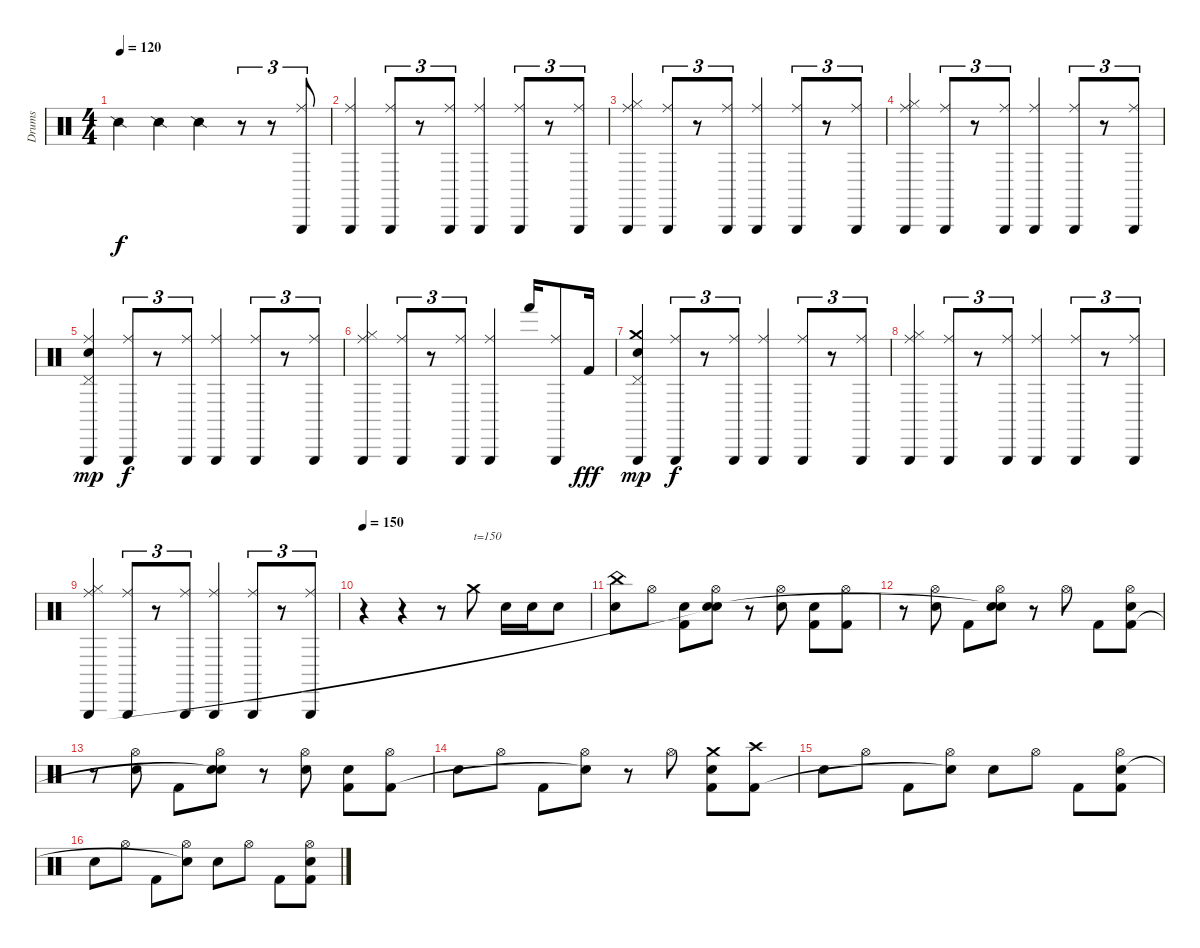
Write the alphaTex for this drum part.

\track ("Drums" "Drums") {instrument percussion}
\staff {score}
\articulation defaults
\ts (4 4)
\tempo 120
\clef neutral
\ks c "Snare (side stick) 2".4{dy f} "Snare (side stick) 2".4 "Snare (side stick) 2".4
r.8{tu (3 2)} r.8{tu (3 2)} ("Triangle (hit)" "Ride (middle)").8{tu (3 2)} |
("Triangle (hit)" "Ride (middle)").4 ("Triangle (hit)" "Ride (middle)").8{tu (3 2)} r.8{tu (3 2)} ("Triangle (hit)" "Ride (middle)").8{tu (3 2)} ("Triangle (hit)" "Ride (middle)").4 ("Triangle (hit)" "Ride (middle)").8{tu (3 2)} r.8{tu (3 2)} ("Triangle (hit)" "Ride (middle)").8{tu (3 2)} |
("Ride (middle)" "Hi-Hat (closed)" "Triangle (hit)").4 ("Ride (middle)" "Triangle (hit)").8{tu (3 2)} r.8{tu (3 2)} ("Ride (middle)" "Triangle (hit)").8{tu (3 2)} ("Ride (middle)" "Triangle (hit)").4 ("Ride (middle)" "Triangle (hit)").8{tu (3 2)} r.8{tu (3 2)} ("Ride (middle)" "Triangle (hit)").8{tu (3 2)} |
("Ride (middle)" "Hi-Hat (closed)" "Triangle (hit)").4 ("Ride (middle)" "Triangle (hit)").8{tu (3 2)} r.8{tu (3 2)} ("Ride (middle)" "Triangle (hit)").8{tu (3 2)} ("Ride (middle)" "Triangle (hit)").4 ("Ride (middle)" "Triangle (hit)").8{tu (3 2)} r.8{tu (3 2)} ("Ride (middle)" "Triangle (hit)").8{tu (3 2)} |
("Ride (middle)" "Snare (hit) 2" "Pedal Hi-Hat (hit)" "Triangle (hit)").4{dy mp} ("Ride (middle)" "Triangle (hit)").8{tu (3 2) dy f} r.8{tu (3 2)} ("Ride (middle)" "Triangle (hit)").8{tu (3 2)} ("Ride (middle)" "Triangle (hit)").4 ("Ride (middle)" "Triangle (hit)").8{tu (3 2)} r.8{tu (3 2)} ("Ride (middle)" "Triangle (hit)").8{tu (3 2)} |
("Ride (middle)" "Hi-Hat (closed)" "Triangle (hit)").4 ("Ride (middle)" "Triangle (hit)").8{tu (3 2)} r.8{tu (3 2)} ("Ride (middle)" "Triangle (hit)").8{tu (3 2)} ("Ride (middle)" "Triangle (hit)").4 "Hand (hit)".16 ("Ride (middle)" "Triangle (hit)").8 "Kick (hit) 2".16{dy fff} |
("Crash medium (hit)" "Snare (hit) 2" "Pedal Hi-Hat (hit)" "Triangle (hit)").4{dy mp} ("Ride (middle)" "Triangle (hit)").8{tu (3 2) dy f} r.8{tu (3 2)} ("Ride (middle)" "Triangle (hit)").8{tu (3 2)} ("Ride (middle)" "Triangle (hit)").4 ("Ride (middle)" "Triangle (hit)").8{tu (3 2)} r.8{tu (3 2)} ("Ride (middle)" "Triangle (hit)").8{tu (3 2)} |
("Ride (middle)" "Hi-Hat (closed)" "Triangle (hit)").4 ("Ride (middle)" "Triangle (hit)").8{tu (3 2)} r.8{tu (3 2)} ("Ride (middle)" "Triangle (hit)").8{tu (3 2)} ("Ride (middle)" "Triangle (hit)").4 ("Ride (middle)" "Triangle (hit)").8{tu (3 2)} r.8{tu (3 2)} ("Ride (middle)" "Triangle (hit)").8{tu (3 2)} |
("Ride (middle)" "Hi-Hat (closed)" "Triangle (hit)").4 ("Ride (middle)" "Triangle (hit)").8{tu (3 2)} r.8{tu (3 2)} ("Ride (middle)" "Triangle (hit)").8{tu (3 2)} ("Ride (middle)" "Triangle (hit)").4 ("Ride (middle)" "Triangle (hit)").8{tu (3 2)} r.8{tu (3 2)} ("Ride (middle)" "Triangle (hit)").8{tu (3 2)} |
\tempo 150
r.4 r.4 r.8 "Crash medium (hit)".8{txt "t=150"} "Snare (hit) 2".16 "Snare (hit) 2".16 "Electric Snare (hit)".8 |
("China (hit)" "Snare (hit) 2").8 "Hi-Hat (open)".8 ("Snare (hit) 2" "Kick (hit) 2").8 ("Hi-Hat (open)" "Snare (hit) 2" "Snare (hit)"{t}).8 r.8 ("Hi-Hat (open)" "Snare (hit) 2").8 ("Snare (hit) 2" "Kick (hit) 2").8 ("Hi-Hat (open)" "Kick (hit) 2").8 |
r.8 ("Hi-Hat (open)" "Snare (hit) 2").8 "Kick (hit) 2".8 ("Hi-Hat (open)" "Snare (hit) 2" "Snare (hit)"{t}).8 r.8 "Hi-Hat (open)".8 "Kick (hit) 2".8 ("Hi-Hat (open)" "Snare (hit) 2" "Kick (hit) 2").8 |
r.8 ("Hi-Hat (open)" "Snare (hit) 2").8 "Kick (hit) 2".8 ("Hi-Hat (open)" "Snare (hit) 2" "Snare (hit)"{t}).8 r.8 ("Hi-Hat (open)" "Snare (hit) 2").8 ("Snare (hit) 2" "Kick (hit) 2").8 ("Hi-Hat (open)" "Kick (hit) 2").8 |
"Snare (hit) 2".8 "Hi-Hat (open)".8 "Kick (hit) 2".8 ("Hi-Hat (open)" "Snare (hit)"{t}).8 r.8 "Hi-Hat (open)".8 ("Crash medium (hit)" "Snare (hit) 2" "Kick (hit) 2").8 ("Crash high (hit)" "Kick (hit) 2").8 |
"Snare (hit) 2".8 "Hi-Hat (open)".8 "Kick (hit) 2".8 ("Hi-Hat (open)" "Snare (hit)"{t}).8 "Snare (hit) 2".8 "Hi-Hat (open)".8 "Kick (hit) 2".8 ("Hi-Hat (open)" "Snare (hit) 2" "Kick (hit) 2").8 |
"Snare (hit) 2".8 "Hi-Hat (open)".8 "Kick (hit) 2".8 ("Hi-Hat (open)" "Snare (hit)"{t}).8 "Snare (hit) 2".8 "Hi-Hat (open)".8 "Kick (hit) 2".8 ("Hi-Hat (open)" "Snare (hit) 2" "Kick (hit) 2").8
